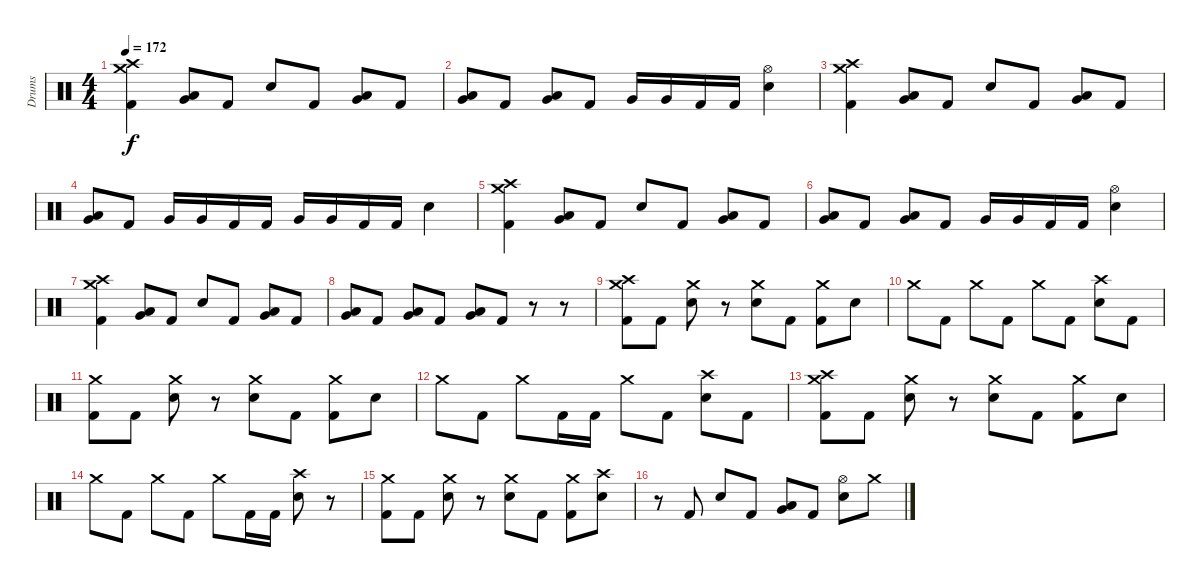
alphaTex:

\track ("Drums" "Drums") {instrument percussion}
\staff {score}
\articulation defaults
\ts (4 4)
\tempo 172
\clef neutral
\ks c
("Crash medium (hit)" "Crash high (hit)" "Kick (hit) 2").4{dy f} ("Very Low Tom (hit)" "Low Tom (hit)").8 "Kick (hit) 2".8 "Electric Snare (hit)".8 "Kick (hit) 2".8 ("Very Low Tom (hit)" "Low Tom (hit)").8 "Kick (hit) 2".8 |
("Very Low Tom (hit)" "Low Tom (hit)").8 "Kick (hit) 2".8 ("Low Floor Tom (hit)" "Very Low Tom (hit)").8 "Kick (hit) 2".8 "Very Low Tom (hit)".16 "Very Low Tom (hit)".16 "Kick (hit) 2".16 "Kick (hit) 2".16 ("Hi-Hat (open)" "Electric Snare (hit)").4 |
("Crash medium (hit)" "Crash high (hit)" "Kick (hit) 2").4 ("Very Low Tom (hit)" "Low Tom (hit)").8 "Kick (hit) 2".8 "Electric Snare (hit)".8 "Kick (hit) 2".8 ("Very Low Tom (hit)" "Low Tom (hit)").8 "Kick (hit) 2".8 |
("Very Low Tom (hit)" "Low Tom (hit)").8 "Kick (hit) 2".8 "Very Low Tom (hit)".16 "Very Low Tom (hit)".16 "Kick (hit) 2".16 "Kick (hit) 2".16 "Very Low Tom (hit)".16 "Very Low Tom (hit)".16 "Kick (hit) 2".16 "Kick (hit) 2".16 "Electric Snare (hit)".4 |
("Crash medium (hit)" "Crash high (hit)" "Kick (hit) 2").4 ("Very Low Tom (hit)" "Low Tom (hit)").8 "Kick (hit) 2".8 "Electric Snare (hit)".8 "Kick (hit) 2".8 ("Very Low Tom (hit)" "Low Tom (hit)").8 "Kick (hit) 2".8 |
("Very Low Tom (hit)" "Low Tom (hit)").8 "Kick (hit) 2".8 ("Low Floor Tom (hit)" "Very Low Tom (hit)").8 "Kick (hit) 2".8 "Very Low Tom (hit)".16 "Very Low Tom (hit)".16 "Kick (hit) 2".16 "Kick (hit) 2".16 ("Hi-Hat (open)" "Electric Snare (hit)").4 |
("Crash medium (hit)" "Crash high (hit)" "Kick (hit) 2").4 ("Very Low Tom (hit)" "Low Tom (hit)").8 "Kick (hit) 2".8 "Electric Snare (hit)".8 "Kick (hit) 2".8 ("Very Low Tom (hit)" "Low Tom (hit)").8 "Kick (hit) 2".8 |
("Very Low Tom (hit)" "Low Tom (hit)").8 "Kick (hit) 2".8 ("Low Floor Tom (hit)" "Very Low Tom (hit)").8 "Kick (hit) 2".8 ("Low Floor Tom (hit)" "Very Low Tom (hit)").8 "Kick (hit) 2".8 r.8 r.8 |
("Crash medium (hit)" "Crash high (hit)" "Kick (hit) 2").8 "Kick (hit) 2".8 ("Crash medium (hit)" "Electric Snare (hit)").8 r.8 ("Crash medium (hit)" "Electric Snare (hit)").8 "Kick (hit) 2".8 ("Crash medium (hit)" "Kick (hit) 2").8 "Electric Snare (hit)".8 |
"Crash medium (hit)".8 "Kick (hit) 2".8 "Crash medium (hit)".8 "Kick (hit) 2".8 "Crash medium (hit)".8 "Kick (hit) 2".8 ("Crash high (hit)" "Electric Snare (hit)").8 "Kick (hit) 2".8 |
("Crash medium (hit)" "Kick (hit) 2").8 "Kick (hit) 2".8 ("Crash medium (hit)" "Electric Snare (hit)").8 r.8 ("Crash medium (hit)" "Electric Snare (hit)").8 "Kick (hit) 2".8 ("Crash medium (hit)" "Kick (hit) 2").8 "Electric Snare (hit)".8 |
"Crash medium (hit)".8 "Kick (hit) 2".8 "Crash medium (hit)".8 "Kick (hit) 2".16 "Kick (hit) 2".16 "Crash medium (hit)".8 "Kick (hit) 2".8 ("Crash high (hit)" "Electric Snare (hit)").8 "Kick (hit) 2".8 |
("Crash medium (hit)" "Crash high (hit)" "Kick (hit) 2").8 "Kick (hit) 2".8 ("Crash medium (hit)" "Electric Snare (hit)").8 r.8 ("Crash medium (hit)" "Electric Snare (hit)").8 "Kick (hit) 2".8 ("Crash medium (hit)" "Kick (hit) 2").8 "Electric Snare (hit)".8 |
"Crash medium (hit)".8 "Kick (hit) 2".8 "Crash medium (hit)".8 "Kick (hit) 2".8 "Crash medium (hit)".8 "Kick (hit) 2".16 "Kick (hit) 2".16 ("Crash high (hit)" "Electric Snare (hit)").8 r.8 |
("Crash medium (hit)" "Kick (hit) 2").8 "Kick (hit) 2".8 ("Crash medium (hit)" "Electric Snare (hit)").8 r.8 ("Crash medium (hit)" "Electric Snare (hit)").8 "Kick (hit) 2".8 ("Crash medium (hit)" "Kick (hit) 2").8 ("Crash high (hit)" "Electric Snare (hit)").8 |
r.8 "Kick (hit) 2".8 "Electric Snare (hit)".8 "Kick (hit) 2".8 ("Low Floor Tom (hit)" "Very Low Tom (hit)").8 "Kick (hit) 2".8 ("Hi-Hat (open)" "Electric Snare (hit)").8 "Crash medium (hit)".8
